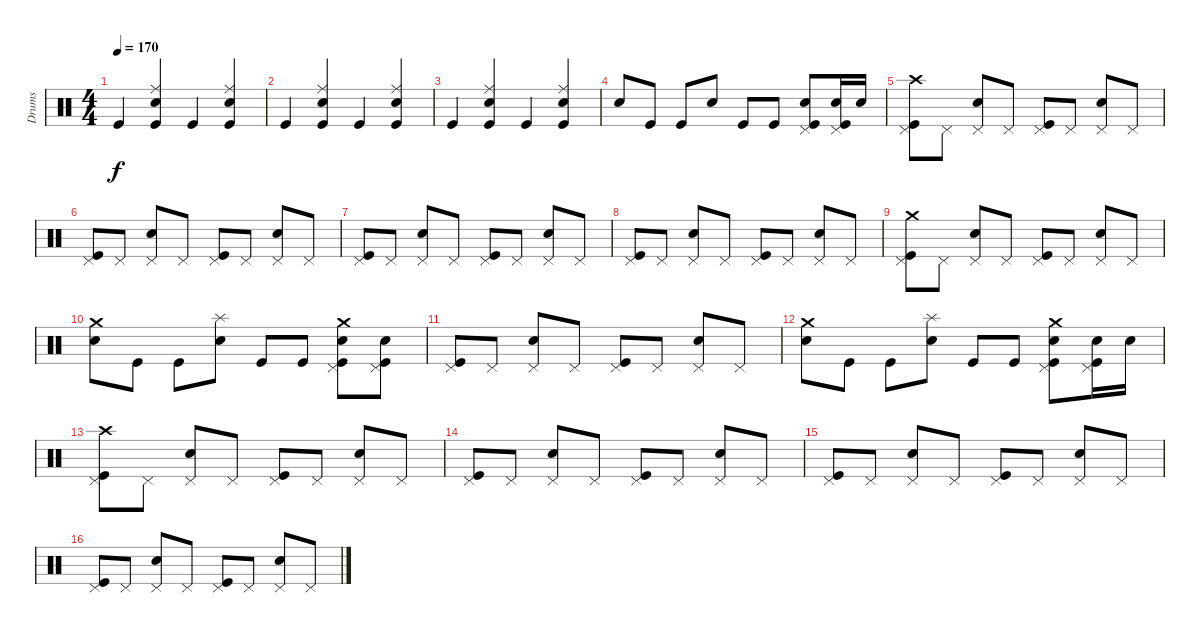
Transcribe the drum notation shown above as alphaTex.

\track ("Drums" "Drums") {instrument percussion}
\staff {score}
\articulation defaults
\ts (4 4)
\tempo 170
\clef neutral
\ks c "Kick (hit)".4{dy f}
("Ride (middle)" "Kick (hit)" "Electric Snare (hit)").4 "Kick (hit)".4 ("Ride (middle)" "Kick (hit)" "Electric Snare (hit)").4 |
"Kick (hit)".4 ("Ride (middle)" "Kick (hit)" "Electric Snare (hit)").4 "Kick (hit)".4 ("Ride (middle)" "Kick (hit)" "Electric Snare (hit)").4 |
"Kick (hit)".4 ("Ride (middle)" "Kick (hit)" "Electric Snare (hit)").4 "Kick (hit)".4 ("Ride (middle)" "Kick (hit)" "Electric Snare (hit)").4 |
"Electric Snare (hit)".8 "Kick (hit)".8 "Kick (hit)".8 "Electric Snare (hit)".8 "Kick (hit)".8 "Kick (hit)".8 ("Pedal Hi-Hat (hit)" "Kick (hit)" "Electric Snare (hit)").8 ("Pedal Hi-Hat (hit)" "Kick (hit)" "Electric Snare (hit)").16 "Electric Snare (hit)".16 |
("Crash high (hit)" "Pedal Hi-Hat (hit)" "Kick (hit)").8 "Pedal Hi-Hat (hit)".8 ("Pedal Hi-Hat (hit)" "Electric Snare (hit)").8 "Pedal Hi-Hat (hit)".8 ("Pedal Hi-Hat (hit)" "Kick (hit)").8 "Pedal Hi-Hat (hit)".8 ("Pedal Hi-Hat (hit)" "Electric Snare (hit)").8 "Pedal Hi-Hat (hit)".8 |
("Pedal Hi-Hat (hit)" "Kick (hit)").8 "Pedal Hi-Hat (hit)".8 ("Pedal Hi-Hat (hit)" "Electric Snare (hit)").8 "Pedal Hi-Hat (hit)".8 ("Pedal Hi-Hat (hit)" "Kick (hit)").8 "Pedal Hi-Hat (hit)".8 ("Pedal Hi-Hat (hit)" "Electric Snare (hit)").8 "Pedal Hi-Hat (hit)".8 |
("Pedal Hi-Hat (hit)" "Kick (hit)").8 "Pedal Hi-Hat (hit)".8 ("Pedal Hi-Hat (hit)" "Electric Snare (hit)").8 "Pedal Hi-Hat (hit)".8 ("Pedal Hi-Hat (hit)" "Kick (hit)").8 "Pedal Hi-Hat (hit)".8 ("Pedal Hi-Hat (hit)" "Electric Snare (hit)").8 "Pedal Hi-Hat (hit)".8 |
("Pedal Hi-Hat (hit)" "Kick (hit)").8 "Pedal Hi-Hat (hit)".8 ("Pedal Hi-Hat (hit)" "Electric Snare (hit)").8 "Pedal Hi-Hat (hit)".8 ("Pedal Hi-Hat (hit)" "Kick (hit)").8 "Pedal Hi-Hat (hit)".8 ("Pedal Hi-Hat (hit)" "Electric Snare (hit)").8 "Pedal Hi-Hat (hit)".8 |
("Crash medium (hit)" "Pedal Hi-Hat (hit)" "Kick (hit)").8 "Pedal Hi-Hat (hit)".8 ("Pedal Hi-Hat (hit)" "Electric Snare (hit)").8 "Pedal Hi-Hat (hit)".8 ("Pedal Hi-Hat (hit)" "Kick (hit)").8 "Pedal Hi-Hat (hit)".8 ("Pedal Hi-Hat (hit)" "Electric Snare (hit)").8 "Pedal Hi-Hat (hit)".8 |
("Crash medium (hit)" "Electric Snare (hit)").8 "Kick (hit)".8 "Kick (hit)".8 ("Splash (hit)" "Electric Snare (hit)").8 "Kick (hit)".8 "Kick (hit)".8 ("Crash medium (hit)" "Pedal Hi-Hat (hit)" "Kick (hit)" "Electric Snare (hit)").8 ("Pedal Hi-Hat (hit)" "Kick (hit)" "Electric Snare (hit)").8 |
("Pedal Hi-Hat (hit)" "Kick (hit)").8 "Pedal Hi-Hat (hit)".8 ("Pedal Hi-Hat (hit)" "Electric Snare (hit)").8 "Pedal Hi-Hat (hit)".8 ("Pedal Hi-Hat (hit)" "Kick (hit)").8 "Pedal Hi-Hat (hit)".8 ("Pedal Hi-Hat (hit)" "Electric Snare (hit)").8 "Pedal Hi-Hat (hit)".8 |
("Crash medium (hit)" "Electric Snare (hit)").8 "Kick (hit)".8 "Kick (hit)".8 ("Splash (hit)" "Electric Snare (hit)").8 "Kick (hit)".8 "Kick (hit)".8 ("Crash medium (hit)" "Pedal Hi-Hat (hit)" "Kick (hit)" "Electric Snare (hit)").8 ("Pedal Hi-Hat (hit)" "Kick (hit)" "Electric Snare (hit)").16 "Electric Snare (hit)".16 |
("Crash high (hit)" "Pedal Hi-Hat (hit)" "Kick (hit)").8 "Pedal Hi-Hat (hit)".8 ("Pedal Hi-Hat (hit)" "Electric Snare (hit)").8 "Pedal Hi-Hat (hit)".8 ("Pedal Hi-Hat (hit)" "Kick (hit)").8 "Pedal Hi-Hat (hit)".8 ("Pedal Hi-Hat (hit)" "Electric Snare (hit)").8 "Pedal Hi-Hat (hit)".8 |
("Pedal Hi-Hat (hit)" "Kick (hit)").8 "Pedal Hi-Hat (hit)".8 ("Pedal Hi-Hat (hit)" "Electric Snare (hit)").8 "Pedal Hi-Hat (hit)".8 ("Pedal Hi-Hat (hit)" "Kick (hit)").8 "Pedal Hi-Hat (hit)".8 ("Pedal Hi-Hat (hit)" "Electric Snare (hit)").8 "Pedal Hi-Hat (hit)".8 |
("Pedal Hi-Hat (hit)" "Kick (hit)").8 "Pedal Hi-Hat (hit)".8 ("Pedal Hi-Hat (hit)" "Electric Snare (hit)").8 "Pedal Hi-Hat (hit)".8 ("Pedal Hi-Hat (hit)" "Kick (hit)").8 "Pedal Hi-Hat (hit)".8 ("Pedal Hi-Hat (hit)" "Electric Snare (hit)").8 "Pedal Hi-Hat (hit)".8 |
("Pedal Hi-Hat (hit)" "Kick (hit)").8 "Pedal Hi-Hat (hit)".8 ("Pedal Hi-Hat (hit)" "Electric Snare (hit)").8 "Pedal Hi-Hat (hit)".8 ("Pedal Hi-Hat (hit)" "Kick (hit)").8 "Pedal Hi-Hat (hit)".8 ("Pedal Hi-Hat (hit)" "Electric Snare (hit)").8 "Pedal Hi-Hat (hit)".8
